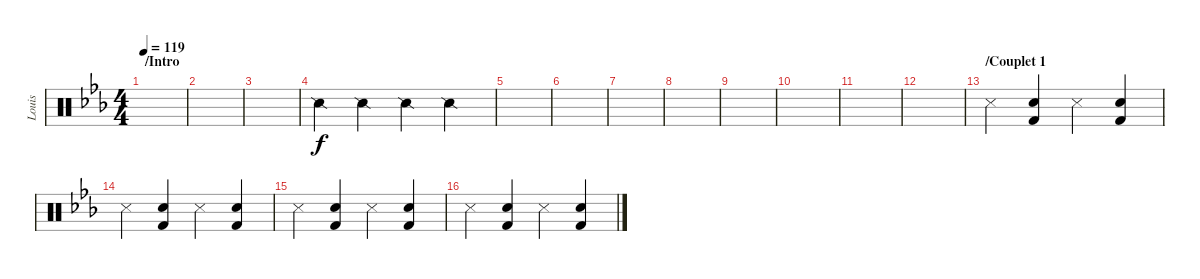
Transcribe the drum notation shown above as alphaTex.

\track ("Louis" "Louis") {instrument percussion}
\staff {score}
\articulation defaults
\ts (4 4)
\section ("" "/Intro")
\tempo 119
\clef neutral
\ks cminor
|
|
|
"Snare (side stick) 2".4 "Snare (side stick) 2".4 "Snare (side stick) 2".4 "Snare (side stick) 2".4 |
|
|
|
|
|
|
|
|
\section ("" "/Couplet 1")
"Metronome (hit)".4 ("Kick (hit) 2" "Snare (hit) 2").4 "Metronome (hit)".4 ("Kick (hit) 2" "Snare (hit) 2").4 |
"Metronome (hit)".4 ("Kick (hit) 2" "Snare (hit) 2").4 "Metronome (hit)".4 ("Kick (hit) 2" "Snare (hit) 2").4 |
"Metronome (hit)".4 ("Kick (hit) 2" "Snare (hit) 2").4 "Metronome (hit)".4 ("Kick (hit) 2" "Snare (hit) 2").4 |
"Metronome (hit)".4 ("Kick (hit) 2" "Snare (hit) 2").4 "Metronome (hit)".4 ("Kick (hit) 2" "Snare (hit) 2").4
